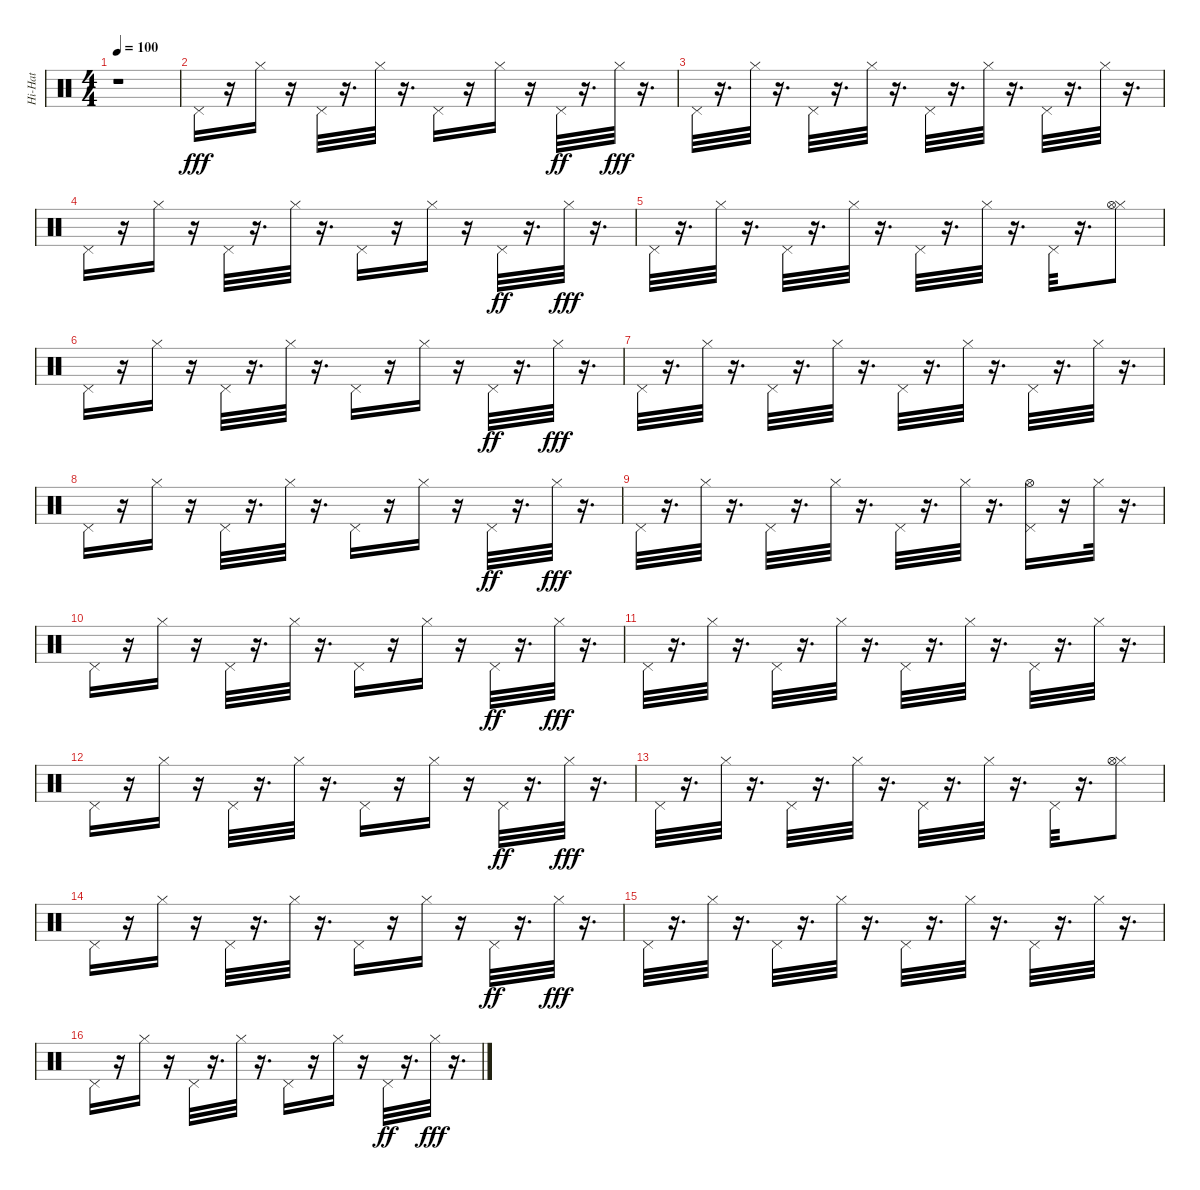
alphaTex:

\track ("Hi-Hat" "Hi-Hat") {instrument percussion}
\staff {score}
\articulation defaults
\ts (4 4)
\tempo 100
\clef neutral
\ks c
r.1{dy fff} |
"Pedal Hi-Hat (hit)".16 r.16 "Hi-Hat (closed)".16 r.16 "Pedal Hi-Hat (hit)".32 r.16{d} "Hi-Hat (closed)".32 r.16{d} "Pedal Hi-Hat (hit)".16 r.16 "Hi-Hat (closed)".16 r.16 "Pedal Hi-Hat (hit)".32{dy ff} r.16{d} "Hi-Hat (closed)".32{dy fff} r.16{d} |
"Pedal Hi-Hat (hit)".32 r.16{d} "Hi-Hat (closed)".32 r.16{d} "Pedal Hi-Hat (hit)".32 r.16{d} "Hi-Hat (closed)".32 r.16{d} "Pedal Hi-Hat (hit)".32 r.16{d} "Hi-Hat (closed)".32 r.16{d} "Pedal Hi-Hat (hit)".32 r.16{d} "Hi-Hat (closed)".32 r.16{d} |
"Pedal Hi-Hat (hit)".16 r.16 "Hi-Hat (closed)".16 r.16 "Pedal Hi-Hat (hit)".32 r.16{d} "Hi-Hat (closed)".32 r.16{d} "Pedal Hi-Hat (hit)".16 r.16 "Hi-Hat (closed)".16 r.16 "Pedal Hi-Hat (hit)".32{dy ff} r.16{d} "Hi-Hat (closed)".32{dy fff} r.16{d} |
"Pedal Hi-Hat (hit)".32 r.16{d} "Hi-Hat (closed)".32 r.16{d} "Pedal Hi-Hat (hit)".32 r.16{d} "Hi-Hat (closed)".32 r.16{d} "Pedal Hi-Hat (hit)".32 r.16{d} "Hi-Hat (closed)".32 r.16{d} "Pedal Hi-Hat (hit)".32 r.16{d} ("Hi-Hat (closed)" "Hi-Hat (open)").8 |
"Pedal Hi-Hat (hit)".16 r.16 "Hi-Hat (closed)".16 r.16 "Pedal Hi-Hat (hit)".32 r.16{d} "Hi-Hat (closed)".32 r.16{d} "Pedal Hi-Hat (hit)".16 r.16 "Hi-Hat (closed)".16 r.16 "Pedal Hi-Hat (hit)".32{dy ff} r.16{d} "Hi-Hat (closed)".32{dy fff} r.16{d} |
"Pedal Hi-Hat (hit)".32 r.16{d} "Hi-Hat (closed)".32 r.16{d} "Pedal Hi-Hat (hit)".32 r.16{d} "Hi-Hat (closed)".32 r.16{d} "Pedal Hi-Hat (hit)".32 r.16{d} "Hi-Hat (closed)".32 r.16{d} "Pedal Hi-Hat (hit)".32 r.16{d} "Hi-Hat (closed)".32 r.16{d} |
"Pedal Hi-Hat (hit)".16 r.16 "Hi-Hat (closed)".16 r.16 "Pedal Hi-Hat (hit)".32 r.16{d} "Hi-Hat (closed)".32 r.16{d} "Pedal Hi-Hat (hit)".16 r.16 "Hi-Hat (closed)".16 r.16 "Pedal Hi-Hat (hit)".32{dy ff} r.16{d} "Hi-Hat (closed)".32{dy fff} r.16{d} |
"Pedal Hi-Hat (hit)".32 r.16{d} "Hi-Hat (closed)".32 r.16{d} "Pedal Hi-Hat (hit)".32 r.16{d} "Hi-Hat (closed)".32 r.16{d} "Pedal Hi-Hat (hit)".32 r.16{d} "Hi-Hat (closed)".32 r.16{d} ("Pedal Hi-Hat (hit)" "Hi-Hat (open)").16 r.16 "Hi-Hat (closed)".32 r.16{d} |
"Pedal Hi-Hat (hit)".16 r.16 "Hi-Hat (closed)".16 r.16 "Pedal Hi-Hat (hit)".32 r.16{d} "Hi-Hat (closed)".32 r.16{d} "Pedal Hi-Hat (hit)".16 r.16 "Hi-Hat (closed)".16 r.16 "Pedal Hi-Hat (hit)".32{dy ff} r.16{d} "Hi-Hat (closed)".32{dy fff} r.16{d} |
"Pedal Hi-Hat (hit)".32 r.16{d} "Hi-Hat (closed)".32 r.16{d} "Pedal Hi-Hat (hit)".32 r.16{d} "Hi-Hat (closed)".32 r.16{d} "Pedal Hi-Hat (hit)".32 r.16{d} "Hi-Hat (closed)".32 r.16{d} "Pedal Hi-Hat (hit)".32 r.16{d} "Hi-Hat (closed)".32 r.16{d} |
"Pedal Hi-Hat (hit)".16 r.16 "Hi-Hat (closed)".16 r.16 "Pedal Hi-Hat (hit)".32 r.16{d} "Hi-Hat (closed)".32 r.16{d} "Pedal Hi-Hat (hit)".16 r.16 "Hi-Hat (closed)".16 r.16 "Pedal Hi-Hat (hit)".32{dy ff} r.16{d} "Hi-Hat (closed)".32{dy fff} r.16{d} |
"Pedal Hi-Hat (hit)".32 r.16{d} "Hi-Hat (closed)".32 r.16{d} "Pedal Hi-Hat (hit)".32 r.16{d} "Hi-Hat (closed)".32 r.16{d} "Pedal Hi-Hat (hit)".32 r.16{d} "Hi-Hat (closed)".32 r.16{d} "Pedal Hi-Hat (hit)".32 r.16{d} ("Hi-Hat (closed)" "Hi-Hat (open)").8 |
"Pedal Hi-Hat (hit)".16 r.16 "Hi-Hat (closed)".16 r.16 "Pedal Hi-Hat (hit)".32 r.16{d} "Hi-Hat (closed)".32 r.16{d} "Pedal Hi-Hat (hit)".16 r.16 "Hi-Hat (closed)".16 r.16 "Pedal Hi-Hat (hit)".32{dy ff} r.16{d} "Hi-Hat (closed)".32{dy fff} r.16{d} |
"Pedal Hi-Hat (hit)".32 r.16{d} "Hi-Hat (closed)".32 r.16{d} "Pedal Hi-Hat (hit)".32 r.16{d} "Hi-Hat (closed)".32 r.16{d} "Pedal Hi-Hat (hit)".32 r.16{d} "Hi-Hat (closed)".32 r.16{d} "Pedal Hi-Hat (hit)".32 r.16{d} "Hi-Hat (closed)".32 r.16{d} |
"Pedal Hi-Hat (hit)".16 r.16 "Hi-Hat (closed)".16 r.16 "Pedal Hi-Hat (hit)".32 r.16{d} "Hi-Hat (closed)".32 r.16{d} "Pedal Hi-Hat (hit)".16 r.16 "Hi-Hat (closed)".16 r.16 "Pedal Hi-Hat (hit)".32{dy ff} r.16{d} "Hi-Hat (closed)".32{dy fff} r.16{d}
